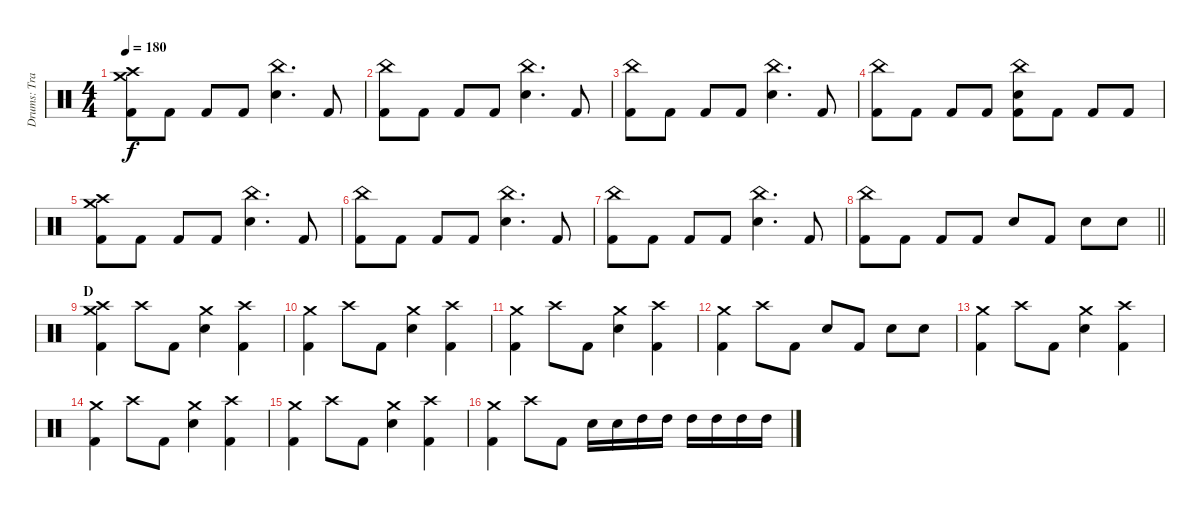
\track ("Drums: Travis Clarke" "Drums: Tra") {instrument percussion}
\staff {score}
\articulation defaults
\ts (4 4)
\tempo 180
\clef neutral
\ks c
("Kick (hit) 2" "Crash high (hit)" "Crash medium (hit)").8{dy f} "Kick (hit) 2".8 "Kick (hit) 2".8 "Kick (hit) 2".8 ("Snare (hit) 2" "China (hit)").4{d} "Kick (hit) 2".8 |
("Kick (hit) 2" "China (hit)").8 "Kick (hit) 2".8 "Kick (hit) 2".8 "Kick (hit) 2".8 ("Snare (hit) 2" "China (hit)").4{d} "Kick (hit) 2".8 |
("Kick (hit) 2" "China (hit)").8 "Kick (hit) 2".8 "Kick (hit) 2".8 "Kick (hit) 2".8 ("Snare (hit) 2" "China (hit)").4{d} "Kick (hit) 2".8 |
("Kick (hit) 2" "China (hit)").8 "Kick (hit) 2".8 "Kick (hit) 2".8 "Kick (hit) 2".8 ("Kick (hit) 2" "Snare (hit) 2" "China (hit)").8 "Kick (hit) 2".8 "Kick (hit) 2".8 "Kick (hit) 2".8 |
("Kick (hit) 2" "Crash high (hit)" "Crash medium (hit)").8 "Kick (hit) 2".8 "Kick (hit) 2".8 "Kick (hit) 2".8 ("Snare (hit) 2" "China (hit)").4{d} "Kick (hit) 2".8 |
("Kick (hit) 2" "China (hit)").8 "Kick (hit) 2".8 "Kick (hit) 2".8 "Kick (hit) 2".8 ("Snare (hit) 2" "China (hit)").4{d} "Kick (hit) 2".8 |
("Kick (hit) 2" "China (hit)").8 "Kick (hit) 2".8 "Kick (hit) 2".8 "Kick (hit) 2".8 ("Snare (hit) 2" "China (hit)").4{d} "Kick (hit) 2".8 |
\barLineRight lightlight
("Kick (hit) 2" "China (hit)").8 "Kick (hit) 2".8 "Kick (hit) 2".8 "Kick (hit) 2".8 "Snare (hit) 2".8 "Kick (hit) 2".8 "Snare (hit) 2".8 "Snare (hit) 2".8 |
\section ("" "D")
("Kick (hit) 2" "Crash high (hit)" "Crash medium (hit)").4 "Crash high (hit)".8 "Kick (hit) 2".8 ("Snare (hit) 2" "Crash medium (hit)").4 ("Kick (hit) 2" "Crash high (hit)").4 |
("Kick (hit) 2" "Crash medium (hit)").4 "Crash high (hit)".8 "Kick (hit) 2".8 ("Snare (hit) 2" "Crash medium (hit)").4 ("Kick (hit) 2" "Crash high (hit)").4 |
("Kick (hit) 2" "Crash medium (hit)").4 "Crash high (hit)".8 "Kick (hit) 2".8 ("Snare (hit) 2" "Crash medium (hit)").4 ("Kick (hit) 2" "Crash high (hit)").4 |
("Kick (hit) 2" "Crash medium (hit)").4 "Crash high (hit)".8 "Kick (hit) 2".8 "Snare (hit) 2".8 "Kick (hit) 2".8 "Snare (hit) 2".8 "Snare (hit) 2".8 |
("Kick (hit) 2" "Crash medium (hit)").4 "Crash high (hit)".8 "Kick (hit) 2".8 ("Snare (hit) 2" "Crash medium (hit)").4 ("Kick (hit) 2" "Crash high (hit)").4 |
("Kick (hit) 2" "Crash medium (hit)").4 "Crash high (hit)".8 "Kick (hit) 2".8 ("Snare (hit) 2" "Crash medium (hit)").4 ("Kick (hit) 2" "Crash high (hit)").4 |
("Kick (hit) 2" "Crash medium (hit)").4 "Crash high (hit)".8 "Kick (hit) 2".8 ("Snare (hit) 2" "Crash medium (hit)").4 ("Kick (hit) 2" "Crash high (hit)").4 |
("Kick (hit) 2" "Crash medium (hit)").4 "Crash high (hit)".8 "Kick (hit) 2".8 "Snare (hit) 2".16 "Snare (hit) 2".16 "High Tom (hit)".16 "High Tom (hit)".16 "High Tom (hit)".16 "High Tom (hit)".16 "High Tom (hit)".16 "High Tom (hit)".16
